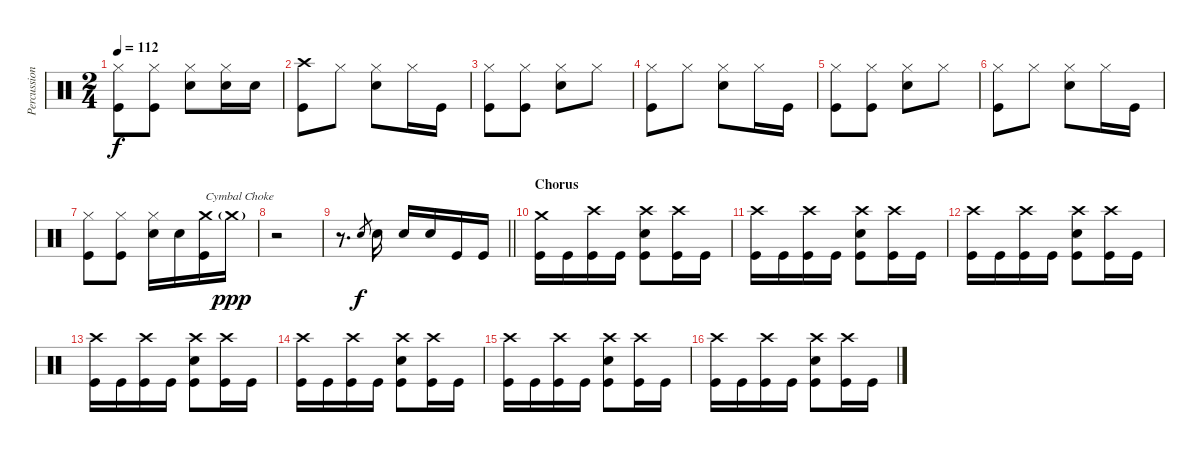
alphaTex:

\track ("Percussion" "Percussion") {instrument percussion}
\staff {score}
\articulation defaults
\ts (2 4)
\tempo 112
\clef neutral
\ks c
("Hi-Hat (closed)" "Kick (hit)").8{dy f} ("Hi-Hat (closed)" "Kick (hit)").8 ("Hi-Hat (closed)" "Electric Snare (hit)").8 ("Hi-Hat (closed)" "Electric Snare (hit)").16 "Electric Snare (hit)".16 |
("Crash high (hit)" "Kick (hit)").8 "Hi-Hat (closed)".8 ("Hi-Hat (closed)" "Electric Snare (hit)").8 "Hi-Hat (closed)".16 "Kick (hit)".16 |
("Hi-Hat (closed)" "Kick (hit)").8 ("Hi-Hat (closed)" "Kick (hit)").8 ("Hi-Hat (closed)" "Electric Snare (hit)").8 "Hi-Hat (closed)".8 |
("Hi-Hat (closed)" "Kick (hit)").8 "Hi-Hat (closed)".8 ("Hi-Hat (closed)" "Electric Snare (hit)").8 "Hi-Hat (closed)".16 "Kick (hit)".16 |
("Hi-Hat (closed)" "Kick (hit)").8 ("Hi-Hat (closed)" "Kick (hit)").8 ("Hi-Hat (closed)" "Electric Snare (hit)").8 "Hi-Hat (closed)".8 |
("Hi-Hat (closed)" "Kick (hit)").8 "Hi-Hat (closed)".8 ("Hi-Hat (closed)" "Electric Snare (hit)").8 "Hi-Hat (closed)".16 "Kick (hit)".16 |
("Hi-Hat (closed)" "Kick (hit)").8 ("Hi-Hat (closed)" "Kick (hit)").8 ("Hi-Hat (closed)" "Electric Snare (hit)").16 "Electric Snare (hit)".16 ("Crash medium (hit)" "Kick (hit)").16{txt "Cymbal Choke"} "Crash medium (hit)"{g}.16{dy ppp volume 0} |
r.2 |
\barLineRight lightlight
r.8{d volume 13} "Electric Snare (hit)".8{gr dy f} "Electric Snare (hit)".16 "Electric Snare (hit)".16 "Electric Snare (hit)".16 "Kick (hit)".16 "Kick (hit)".16 |
\section ("" "Chorus")
("Crash medium (hit)" "Kick (hit)").16 "Kick (hit)".16 ("Crash high (hit)" "Kick (hit)").16 "Kick (hit)".16 ("Crash high (hit)" "Electric Snare (hit)" "Kick (hit)").8 ("Crash high (hit)" "Kick (hit)").16 "Kick (hit)".16 |
("Crash high (hit)" "Kick (hit)").16 "Kick (hit)".16 ("Crash high (hit)" "Kick (hit)").16 "Kick (hit)".16 ("Crash high (hit)" "Electric Snare (hit)" "Kick (hit)").8 ("Crash high (hit)" "Kick (hit)").16 "Kick (hit)".16 |
("Crash high (hit)" "Kick (hit)").16 "Kick (hit)".16 ("Crash high (hit)" "Kick (hit)").16 "Kick (hit)".16 ("Crash high (hit)" "Electric Snare (hit)" "Kick (hit)").8 ("Crash high (hit)" "Kick (hit)").16 "Kick (hit)".16 |
("Crash high (hit)" "Kick (hit)").16 "Kick (hit)".16 ("Crash high (hit)" "Kick (hit)").16 "Kick (hit)".16 ("Crash high (hit)" "Electric Snare (hit)" "Kick (hit)").8 ("Crash high (hit)" "Kick (hit)").16 "Kick (hit)".16 |
("Crash high (hit)" "Kick (hit)").16 "Kick (hit)".16 ("Crash high (hit)" "Kick (hit)").16 "Kick (hit)".16 ("Crash high (hit)" "Electric Snare (hit)" "Kick (hit)").8 ("Crash high (hit)" "Kick (hit)").16 "Kick (hit)".16 |
("Crash high (hit)" "Kick (hit)").16 "Kick (hit)".16 ("Crash high (hit)" "Kick (hit)").16 "Kick (hit)".16 ("Crash high (hit)" "Electric Snare (hit)" "Kick (hit)").8 ("Crash high (hit)" "Kick (hit)").16 "Kick (hit)".16 |
("Crash high (hit)" "Kick (hit)").16 "Kick (hit)".16 ("Crash high (hit)" "Kick (hit)").16 "Kick (hit)".16 ("Crash high (hit)" "Electric Snare (hit)" "Kick (hit)").8 ("Crash high (hit)" "Kick (hit)").16 "Kick (hit)".16
